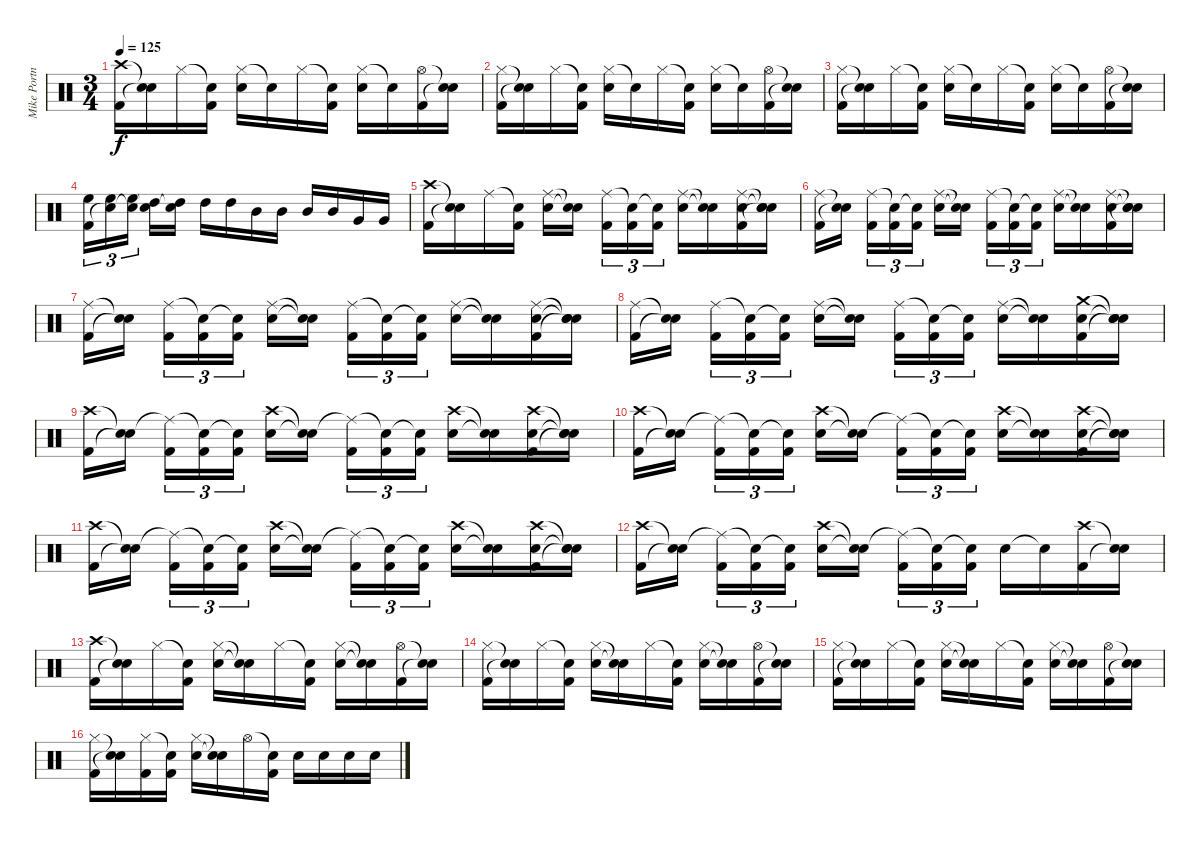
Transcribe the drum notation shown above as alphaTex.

\track ("Mike Portnoy Drums" "Mike Portn") {instrument percussion}
\staff {score}
\articulation defaults
\ts (3 4)
\tempo 125
\clef neutral
\ks c
("Crash high (hit)" "Kick (hit) 2").16{dy f} ("Snare (hit)"{t} "Snare (hit)"{t}).16 "Hi-Hat (closed)".16 ("Snare (hit)"{t} "Kick (hit) 2").16 ("Hi-Hat (closed)" "Snare (hit) 2").16 "Snare (hit)"{t}.16 "Hi-Hat (closed)".16 ("Snare (hit)"{t} "Kick (hit) 2").16 ("Hi-Hat (closed)" "Snare (hit) 2").16 "Snare (hit)"{t}.16 ("Hi-Hat (open)" "Kick (hit) 2").16 ("Snare (hit)"{t} "Snare (hit)"{t}).16 |
("Hi-Hat (closed)" "Kick (hit) 2").16 ("Snare (hit)"{t} "Snare (hit)"{t}).16 "Hi-Hat (closed)".16 ("Snare (hit)"{t} "Kick (hit) 2").16 ("Hi-Hat (closed)" "Snare (hit) 2").16 "Snare (hit)"{t}.16 "Hi-Hat (closed)".16 ("Snare (hit)"{t} "Kick (hit) 2").16 ("Hi-Hat (closed)" "Snare (hit) 2").16 "Snare (hit)"{t}.16 ("Hi-Hat (open)" "Kick (hit) 2").16 ("Snare (hit)"{t} "Snare (hit)"{t}).16 |
("Hi-Hat (closed)" "Kick (hit) 2").16 ("Snare (hit)"{t} "Snare (hit)"{t}).16 "Hi-Hat (closed)".16 ("Snare (hit)"{t} "Kick (hit) 2").16 ("Hi-Hat (closed)" "Snare (hit) 2").16 "Snare (hit)"{t}.16 "Hi-Hat (closed)".16 ("Snare (hit)"{t} "Kick (hit) 2").16 ("Hi-Hat (closed)" "Snare (hit) 2").16 "Snare (hit)"{t}.16 ("Hi-Hat (open)" "Kick (hit) 2").16 ("Snare (hit)"{t} "Snare (hit)"{t}).16 |
("High Floor Tom (hit)" "Kick (hit) 2").16{tu (3 2)} ("High Floor Tom (hit)" "Snare (hit)"{t}).16{tu (3 2)} ("High Floor Tom (hit)" "Snare (hit)"{t}).16{tu (3 2) beam splitsecondary} ("High Tom (hit)" "Snare (hit)"{t}).16 ("High Tom (hit)" "Snare (hit)"{t}).16 "High Tom (hit)".16 "High Tom (hit)".16 "Mid Tom (hit)".16 "Mid Tom (hit)".16 "Mid Tom (hit)".16 "Mid Tom (hit)".16 "Very Low Tom (hit)".16 "Very Low Tom (hit)".16 |
("Crash high (hit)" "Kick (hit) 2").16 ("Snare (hit)"{t} "Snare (hit)"{t}).16 "Ride (middle)".16 ("Snare (hit)"{t} "Kick (hit) 2").16 ("Ride (middle)" "Snare (hit) 2").16 ("Snare (hit)"{t} "Snare (hit)"{t}).16{beam splitsecondary} ("Ride (middle)" "Kick (hit) 2").16{tu (3 2)} ("Snare (hit)"{t} "Kick (hit) 2").16{tu (3 2)} ("Snare (hit)"{t} "Kick (hit) 2").16{tu (3 2)} ("Ride (middle)" "Snare (hit) 2").16 ("Snare (hit)"{t} "Snare (hit)"{t}).16 ("Ride (middle)" "Snare (hit) 2" "Kick (hit) 2").16 ("Snare (hit)"{t} "Snare (hit)"{t} "Snare (hit)"{t}).16 |
("Ride (middle)" "Kick (hit) 2").16 ("Snare (hit)"{t} "Snare (hit)"{t}).16{beam splitsecondary} ("Ride (middle)" "Kick (hit) 2").16{tu (3 2)} ("Snare (hit)"{t} "Kick (hit) 2").16{tu (3 2)} ("Snare (hit)"{t} "Kick (hit) 2").16{tu (3 2)} ("Ride (middle)" "Snare (hit) 2").16 ("Snare (hit)"{t} "Snare (hit)"{t}).16{beam splitsecondary} ("Ride (middle)" "Kick (hit) 2").16{tu (3 2)} ("Snare (hit)"{t} "Kick (hit) 2").16{tu (3 2)} ("Snare (hit)"{t} "Kick (hit) 2").16{tu (3 2)} ("Ride (middle)" "Snare (hit) 2").16 ("Snare (hit)"{t} "Snare (hit)"{t}).16 ("Ride (middle)" "Snare (hit) 2" "Kick (hit) 2").16 ("Snare (hit)"{t} "Snare (hit)"{t} "Snare (hit)"{t}).16 |
("Ride (middle)" "Kick (hit) 2").16 ("Snare (hit)"{t} "Snare (hit)"{t}).16{beam splitsecondary} ("Ride (middle)" "Kick (hit) 2").16{tu (3 2)} ("Snare (hit)"{t} "Kick (hit) 2").16{tu (3 2)} ("Snare (hit)"{t} "Kick (hit) 2").16{tu (3 2)} ("Ride (middle)" "Snare (hit) 2").16 ("Snare (hit)"{t} "Snare (hit)"{t}).16{beam splitsecondary} ("Ride (middle)" "Kick (hit) 2").16{tu (3 2)} ("Snare (hit)"{t} "Kick (hit) 2").16{tu (3 2)} ("Snare (hit)"{t} "Kick (hit) 2").16{tu (3 2)} ("Ride (middle)" "Snare (hit) 2").16 ("Snare (hit)"{t} "Snare (hit)"{t}).16 ("Ride (middle)" "Snare (hit) 2" "Kick (hit) 2").16 ("Snare (hit)"{t} "Snare (hit)"{t} "Snare (hit)"{t}).16 |
("Ride (middle)" "Kick (hit) 2").16 ("Snare (hit)"{t} "Snare (hit)"{t}).16{beam splitsecondary} ("Ride (middle)" "Kick (hit) 2").16{tu (3 2)} ("Snare (hit)"{t} "Kick (hit) 2").16{tu (3 2)} ("Snare (hit)"{t} "Kick (hit) 2").16{tu (3 2)} ("Ride (middle)" "Snare (hit) 2").16 ("Snare (hit)"{t} "Snare (hit)"{t}).16{beam splitsecondary} ("Ride (middle)" "Kick (hit) 2").16{tu (3 2)} ("Snare (hit)"{t} "Kick (hit) 2").16{tu (3 2)} ("Snare (hit)"{t} "Kick (hit) 2").16{tu (3 2)} ("Ride (middle)" "Snare (hit) 2").16 ("Snare (hit)"{t} "Snare (hit)"{t}).16 ("Crash medium (hit)" "Snare (hit) 2" "Kick (hit) 2").16 ("Snare (hit)"{t} "Snare (hit)"{t} "Snare (hit)"{t}).16 |
("Crash high (hit)" "Kick (hit) 2").16 ("Snare (hit)"{t} "Snare (hit)"{t}).16{beam splitsecondary} ("Ride (middle)"{t} "Kick (hit) 2").16{tu (3 2)} ("Snare (hit)"{t} "Kick (hit) 2").16{tu (3 2)} ("Snare (hit)"{t} "Kick (hit) 2").16{tu (3 2)} ("Crash high (hit)" "Snare (hit) 2").16 ("Snare (hit)"{t} "Snare (hit)"{t}).16{beam splitsecondary} ("Ride (middle)"{t} "Kick (hit) 2").16{tu (3 2)} ("Snare (hit)"{t} "Kick (hit) 2").16{tu (3 2)} ("Snare (hit)"{t} "Kick (hit) 2").16{tu (3 2)} ("Crash high (hit)" "Snare (hit) 2").16 ("Snare (hit)"{t} "Snare (hit)"{t}).16 ("Crash high (hit)" "Snare (hit) 2" "Kick (hit) 2").16 ("Snare (hit)"{t} "Snare (hit)"{t} "Snare (hit)"{t}).16 |
("Crash high (hit)" "Kick (hit) 2").16 ("Snare (hit)"{t} "Snare (hit)"{t}).16{beam splitsecondary} ("Ride (middle)"{t} "Kick (hit) 2").16{tu (3 2)} ("Snare (hit)"{t} "Kick (hit) 2").16{tu (3 2)} ("Snare (hit)"{t} "Kick (hit) 2").16{tu (3 2)} ("Crash high (hit)" "Snare (hit) 2").16 ("Snare (hit)"{t} "Snare (hit)"{t}).16{beam splitsecondary} ("Ride (middle)"{t} "Kick (hit) 2").16{tu (3 2)} ("Snare (hit)"{t} "Kick (hit) 2").16{tu (3 2)} ("Snare (hit)"{t} "Kick (hit) 2").16{tu (3 2)} ("Crash high (hit)" "Snare (hit) 2").16 ("Snare (hit)"{t} "Snare (hit)"{t}).16 ("Crash high (hit)" "Snare (hit) 2" "Kick (hit) 2").16 ("Snare (hit)"{t} "Snare (hit)"{t} "Snare (hit)"{t}).16 |
("Crash high (hit)" "Kick (hit) 2").16 ("Snare (hit)"{t} "Snare (hit)"{t}).16{beam splitsecondary} ("Ride (middle)"{t} "Kick (hit) 2").16{tu (3 2)} ("Snare (hit)"{t} "Kick (hit) 2").16{tu (3 2)} ("Snare (hit)"{t} "Kick (hit) 2").16{tu (3 2)} ("Crash high (hit)" "Snare (hit) 2").16 ("Snare (hit)"{t} "Snare (hit)"{t}).16{beam splitsecondary} ("Ride (middle)"{t} "Kick (hit) 2").16{tu (3 2)} ("Snare (hit)"{t} "Kick (hit) 2").16{tu (3 2)} ("Snare (hit)"{t} "Kick (hit) 2").16{tu (3 2)} ("Crash high (hit)" "Snare (hit) 2").16 ("Snare (hit)"{t} "Snare (hit)"{t}).16 ("Crash high (hit)" "Snare (hit) 2" "Kick (hit) 2").16 ("Snare (hit)"{t} "Snare (hit)"{t} "Snare (hit)"{t}).16 |
("Crash high (hit)" "Kick (hit) 2").16 ("Snare (hit)"{t} "Snare (hit)"{t}).16{beam splitsecondary} ("Ride (middle)"{t} "Kick (hit) 2").16{tu (3 2)} ("Snare (hit)"{t} "Kick (hit) 2").16{tu (3 2)} ("Snare (hit)"{t} "Kick (hit) 2").16{tu (3 2)} ("Crash high (hit)" "Snare (hit) 2").16 ("Snare (hit)"{t} "Snare (hit)"{t}).16{beam splitsecondary} ("Ride (middle)"{t} "Kick (hit) 2").16{tu (3 2)} ("Snare (hit)"{t} "Kick (hit) 2").16{tu (3 2)} ("Snare (hit)"{t} "Kick (hit) 2").16{tu (3 2)} "Snare (hit) 2".16 "Snare (hit)"{t}.16 ("Crash high (hit)" "Kick (hit) 2").16 ("Snare (hit)"{t} "Snare (hit)"{t}).16 |
("Crash high (hit)" "Kick (hit) 2").16 ("Snare (hit)"{t} "Snare (hit)"{t}).16 "Hi-Hat (closed)".16 ("Snare (hit)"{t} "Kick (hit) 2").16 ("Hi-Hat (closed)" "Snare (hit) 2").16 ("Snare (hit)"{t} "Snare (hit)"{t}).16 "Hi-Hat (closed)".16 ("Snare (hit)"{t} "Kick (hit) 2").16 ("Hi-Hat (closed)" "Snare (hit) 2").16 ("Snare (hit)"{t} "Snare (hit)"{t}).16 ("Hi-Hat (open)" "Kick (hit) 2").16 ("Snare (hit)"{t} "Snare (hit)"{t}).16 |
("Hi-Hat (closed)" "Kick (hit) 2").16 ("Snare (hit)"{t} "Snare (hit)"{t}).16 "Hi-Hat (closed)".16 ("Snare (hit)"{t} "Kick (hit) 2").16 ("Hi-Hat (closed)" "Snare (hit) 2").16 ("Snare (hit)"{t} "Snare (hit)"{t}).16 "Hi-Hat (closed)".16 ("Snare (hit)"{t} "Kick (hit) 2").16 ("Hi-Hat (closed)" "Snare (hit) 2").16 ("Snare (hit)"{t} "Snare (hit)"{t}).16 ("Hi-Hat (open)" "Kick (hit) 2").16 ("Snare (hit)"{t} "Snare (hit)"{t}).16 |
("Hi-Hat (closed)" "Kick (hit) 2").16 ("Snare (hit)"{t} "Snare (hit)"{t}).16 "Hi-Hat (closed)".16 ("Snare (hit)"{t} "Kick (hit) 2").16 ("Hi-Hat (closed)" "Snare (hit) 2").16 ("Snare (hit)"{t} "Snare (hit)"{t}).16 "Hi-Hat (closed)".16 ("Snare (hit)"{t} "Kick (hit) 2").16 ("Hi-Hat (closed)" "Snare (hit) 2").16 ("Snare (hit)"{t} "Snare (hit)"{t}).16 ("Hi-Hat (open)" "Kick (hit) 2").16 ("Snare (hit)"{t} "Snare (hit)"{t}).16 |
("Hi-Hat (closed)" "Kick (hit) 2").16 ("Snare (hit)"{t} "Snare (hit)"{t}).16 ("Hi-Hat (closed)" "Kick (hit) 2").16 ("Snare (hit)"{t} "Kick (hit) 2").16 ("Hi-Hat (closed)" "Snare (hit) 2").16 ("Snare (hit)"{t} "Snare (hit)"{t}).16 "Hi-Hat (open)".16 ("Snare (hit)"{t} "Kick (hit) 2").16 "Snare (hit) 2".16 "Snare (hit) 2".16 "Snare (hit) 2".16 "Snare (hit) 2".16
